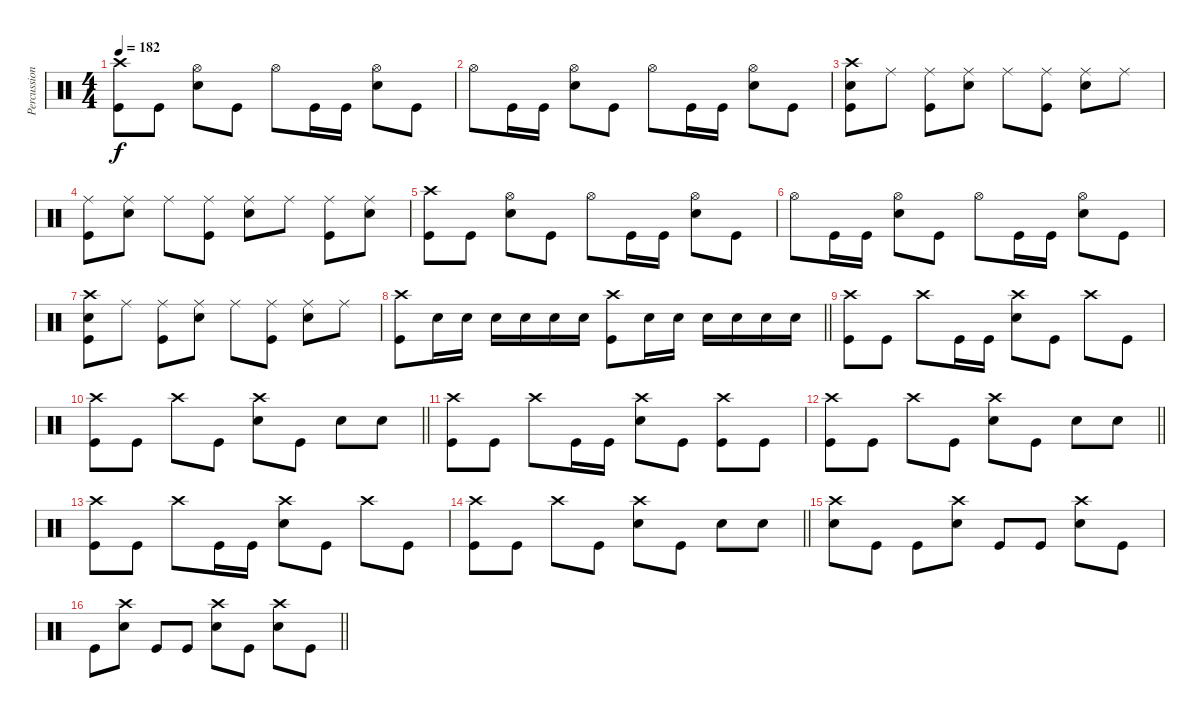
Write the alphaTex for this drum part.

\track ("Percussion" "Percussion") {instrument percussion}
\staff {score}
\articulation defaults
\ts (4 4)
\tempo 182
\clef neutral
\ks c
("Crash high (hit)" "Kick (hit)").8{dy f} "Kick (hit)".8 ("Snare (hit) 2" "Hi-Hat (open)").8 "Kick (hit)".8 "Hi-Hat (open)".8 "Kick (hit)".16 "Kick (hit)".16 ("Snare (hit) 2" "Hi-Hat (open)").8 "Kick (hit)".8 |
"Hi-Hat (open)".8 "Kick (hit)".16 "Kick (hit)".16 ("Snare (hit) 2" "Hi-Hat (open)").8 "Kick (hit)".8 "Hi-Hat (open)".8 "Kick (hit)".16 "Kick (hit)".16 ("Snare (hit) 2" "Hi-Hat (open)").8 "Kick (hit)".8 |
("Kick (hit)" "Crash high (hit)" "Snare (hit) 2").8 "Ride (middle)".8 ("Ride (middle)" "Kick (hit)").8 ("Snare (hit) 2" "Ride (middle)").8 "Ride (middle)".8 ("Ride (middle)" "Kick (hit)").8 ("Ride (middle)" "Snare (hit) 2").8 "Ride (middle)".8 |
("Ride (middle)" "Kick (hit)").8 ("Ride (middle)" "Snare (hit) 2").8 "Ride (middle)".8 ("Ride (middle)" "Kick (hit)").8 ("Ride (middle)" "Snare (hit) 2").8 "Ride (middle)".8 ("Ride (middle)" "Kick (hit)").8 ("Ride (middle)" "Snare (hit) 2").8 |
("Crash high (hit)" "Kick (hit)").8 "Kick (hit)".8 ("Snare (hit) 2" "Hi-Hat (open)").8 "Kick (hit)".8 "Hi-Hat (open)".8 "Kick (hit)".16 "Kick (hit)".16 ("Snare (hit) 2" "Hi-Hat (open)").8 "Kick (hit)".8 |
"Hi-Hat (open)".8 "Kick (hit)".16 "Kick (hit)".16 ("Snare (hit) 2" "Hi-Hat (open)").8 "Kick (hit)".8 "Hi-Hat (open)".8 "Kick (hit)".16 "Kick (hit)".16 ("Snare (hit) 2" "Hi-Hat (open)").8 "Kick (hit)".8 |
("Kick (hit)" "Crash high (hit)" "Snare (hit) 2").8 "Ride (middle)".8 ("Ride (middle)" "Kick (hit)").8 ("Snare (hit) 2" "Ride (middle)").8 "Ride (middle)".8 ("Ride (middle)" "Kick (hit)").8 ("Ride (middle)" "Snare (hit) 2").8 "Ride (middle)".8 |
\barLineRight lightlight
("Crash high (hit)" "Kick (hit)").8 "Snare (hit) 2".16 "Snare (hit) 2".16 "Snare (hit) 2".16 "Snare (hit) 2".16 "Snare (hit) 2".16 "Snare (hit) 2".16 ("Crash high (hit)" "Kick (hit)").8 "Snare (hit) 2".16 "Snare (hit) 2".16 "Snare (hit) 2".16 "Snare (hit) 2".16 "Snare (hit) 2".16 "Snare (hit) 2".16 |
("Crash high (hit)" "Kick (hit)").8 "Kick (hit)".8 "Crash high (hit)".8 "Kick (hit)".16 "Kick (hit)".16 ("Snare (hit) 2" "Crash high (hit)").8 "Kick (hit)".8 "Crash high (hit)".8 "Kick (hit)".8 |
\barLineRight lightlight
("Crash high (hit)" "Kick (hit)").8 "Kick (hit)".8 "Crash high (hit)".8 "Kick (hit)".8 ("Snare (hit) 2" "Crash high (hit)").8 "Kick (hit)".8 "Snare (hit) 2".8 "Snare (hit) 2".8 |
("Crash high (hit)" "Kick (hit)").8 "Kick (hit)".8 "Crash high (hit)".8 "Kick (hit)".16 "Kick (hit)".16 ("Snare (hit) 2" "Crash high (hit)").8 "Kick (hit)".8 ("Crash high (hit)" "Kick (hit)").8 "Kick (hit)".8 |
\barLineRight lightlight
("Crash high (hit)" "Kick (hit)").8 "Kick (hit)".8 "Crash high (hit)".8 "Kick (hit)".8 ("Snare (hit) 2" "Crash high (hit)").8 "Kick (hit)".8 "Snare (hit) 2".8 "Snare (hit) 2".8 |
("Crash high (hit)" "Kick (hit)").8 "Kick (hit)".8 "Crash high (hit)".8 "Kick (hit)".16 "Kick (hit)".16 ("Snare (hit) 2" "Crash high (hit)").8 "Kick (hit)".8 "Crash high (hit)".8 "Kick (hit)".8 |
\barLineRight lightlight
("Crash high (hit)" "Kick (hit)").8 "Kick (hit)".8 "Crash high (hit)".8 "Kick (hit)".8 ("Snare (hit) 2" "Crash high (hit)").8 "Kick (hit)".8 "Snare (hit) 2".8 "Snare (hit) 2".8 |
("Crash high (hit)" "Snare (hit) 2").8 "Kick (hit)".8 "Kick (hit)".8 ("Snare (hit) 2" "Crash high (hit)").8 "Kick (hit)".8 "Kick (hit)".8 ("Crash high (hit)" "Snare (hit) 2").8 "Kick (hit)".8 |
\barLineRight lightlight "Kick (hit)".8
("Crash high (hit)" "Snare (hit) 2").8 "Kick (hit)".8 "Kick (hit)".8 ("Snare (hit) 2" "Crash high (hit)").8 "Kick (hit)".8 ("Crash high (hit)" "Snare (hit) 2").8 "Kick (hit)".8
